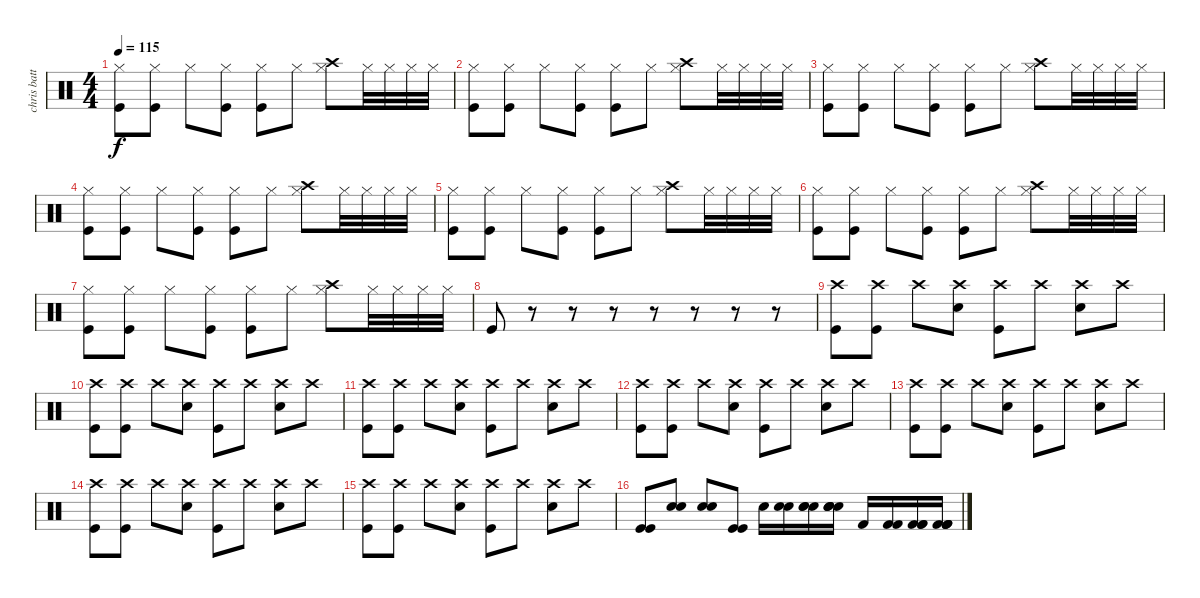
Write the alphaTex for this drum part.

\track ("chris batterie" "chris batt") {instrument percussion}
\staff {score}
\articulation defaults
\ts (4 4)
\tempo 115
\clef neutral
\ks c
("Hi-Hat (closed)" "Kick (hit)").8{dy f} ("Hi-Hat (closed)" "Kick (hit)").8 "Hi-Hat (closed)".8 ("Hi-Hat (closed)" "Kick (hit)").8 ("Hi-Hat (closed)" "Kick (hit)").8 "Hi-Hat (closed)".8 ("Hi-Hat (closed)" "Crash high (hit)").8 "Hi-Hat (closed)".32 "Hi-Hat (closed)".32 "Hi-Hat (closed)".32 "Hi-Hat (closed)".32 |
("Hi-Hat (closed)" "Kick (hit)").8 ("Hi-Hat (closed)" "Kick (hit)").8 "Hi-Hat (closed)".8 ("Hi-Hat (closed)" "Kick (hit)").8 ("Hi-Hat (closed)" "Kick (hit)").8 "Hi-Hat (closed)".8 ("Hi-Hat (closed)" "Crash high (hit)").8 "Hi-Hat (closed)".32 "Hi-Hat (closed)".32 "Hi-Hat (closed)".32 "Hi-Hat (closed)".32 |
("Hi-Hat (closed)" "Kick (hit)").8 ("Hi-Hat (closed)" "Kick (hit)").8 "Hi-Hat (closed)".8 ("Hi-Hat (closed)" "Kick (hit)").8 ("Hi-Hat (closed)" "Kick (hit)").8 "Hi-Hat (closed)".8 ("Hi-Hat (closed)" "Crash high (hit)").8 "Hi-Hat (closed)".32 "Hi-Hat (closed)".32 "Hi-Hat (closed)".32 "Hi-Hat (closed)".32 |
("Hi-Hat (closed)" "Kick (hit)").8 ("Hi-Hat (closed)" "Kick (hit)").8 "Hi-Hat (closed)".8 ("Hi-Hat (closed)" "Kick (hit)").8 ("Hi-Hat (closed)" "Kick (hit)").8 "Hi-Hat (closed)".8 ("Hi-Hat (closed)" "Crash high (hit)").8 "Hi-Hat (closed)".32 "Hi-Hat (closed)".32 "Hi-Hat (closed)".32 "Hi-Hat (closed)".32 |
("Hi-Hat (closed)" "Kick (hit)").8 ("Hi-Hat (closed)" "Kick (hit)").8 "Hi-Hat (closed)".8 ("Hi-Hat (closed)" "Kick (hit)").8 ("Hi-Hat (closed)" "Kick (hit)").8 "Hi-Hat (closed)".8 ("Hi-Hat (closed)" "Crash high (hit)").8 "Hi-Hat (closed)".32 "Hi-Hat (closed)".32 "Hi-Hat (closed)".32 "Hi-Hat (closed)".32 |
("Hi-Hat (closed)" "Kick (hit)").8 ("Hi-Hat (closed)" "Kick (hit)").8 "Hi-Hat (closed)".8 ("Hi-Hat (closed)" "Kick (hit)").8 ("Hi-Hat (closed)" "Kick (hit)").8 "Hi-Hat (closed)".8 ("Hi-Hat (closed)" "Crash high (hit)").8 "Hi-Hat (closed)".32 "Hi-Hat (closed)".32 "Hi-Hat (closed)".32 "Hi-Hat (closed)".32 |
("Hi-Hat (closed)" "Kick (hit)").8 ("Hi-Hat (closed)" "Kick (hit)").8 "Hi-Hat (closed)".8 ("Hi-Hat (closed)" "Kick (hit)").8 ("Hi-Hat (closed)" "Kick (hit)").8 "Hi-Hat (closed)".8 ("Hi-Hat (closed)" "Crash high (hit)").8 "Hi-Hat (closed)".32 "Hi-Hat (closed)".32 "Hi-Hat (closed)".32 "Hi-Hat (closed)".32 |
"Kick (hit)".8 r.8 r.8 r.8 r.8 r.8 r.8 r.8 |
("Crash high (hit)" "Kick (hit)").8 ("Crash high (hit)" "Kick (hit)").8 "Crash high (hit)".8 ("Crash high (hit)" "Snare (hit) 2").8 ("Crash high (hit)" "Kick (hit)").8 "Crash high (hit)".8 ("Crash high (hit)" "Snare (hit) 2").8 "Crash high (hit)".8 |
("Crash high (hit)" "Kick (hit)").8 ("Crash high (hit)" "Kick (hit)").8 "Crash high (hit)".8 ("Crash high (hit)" "Snare (hit) 2").8 ("Crash high (hit)" "Kick (hit)").8 "Crash high (hit)".8 ("Crash high (hit)" "Snare (hit) 2").8 "Crash high (hit)".8 |
("Crash high (hit)" "Kick (hit)").8 ("Crash high (hit)" "Kick (hit)").8 "Crash high (hit)".8 ("Crash high (hit)" "Snare (hit) 2").8 ("Crash high (hit)" "Kick (hit)").8 "Crash high (hit)".8 ("Crash high (hit)" "Snare (hit) 2").8 "Crash high (hit)".8 |
("Crash high (hit)" "Kick (hit)").8 ("Crash high (hit)" "Kick (hit)").8 "Crash high (hit)".8 ("Crash high (hit)" "Snare (hit) 2").8 ("Crash high (hit)" "Kick (hit)").8 "Crash high (hit)".8 ("Crash high (hit)" "Snare (hit) 2").8 "Crash high (hit)".8 |
("Crash high (hit)" "Kick (hit)").8 ("Crash high (hit)" "Kick (hit)").8 "Crash high (hit)".8 ("Crash high (hit)" "Snare (hit) 2").8 ("Crash high (hit)" "Kick (hit)").8 "Crash high (hit)".8 ("Crash high (hit)" "Snare (hit) 2").8 "Crash high (hit)".8 |
("Crash high (hit)" "Kick (hit)").8 ("Crash high (hit)" "Kick (hit)").8 "Crash high (hit)".8 ("Crash high (hit)" "Snare (hit) 2").8 ("Crash high (hit)" "Kick (hit)").8 "Crash high (hit)".8 ("Crash high (hit)" "Snare (hit) 2").8 "Crash high (hit)".8 |
("Crash high (hit)" "Kick (hit)").8 ("Crash high (hit)" "Kick (hit)").8 "Crash high (hit)".8 ("Crash high (hit)" "Snare (hit) 2").8 ("Crash high (hit)" "Kick (hit)").8 "Crash high (hit)".8 ("Crash high (hit)" "Snare (hit) 2").8 "Crash high (hit)".8 |
("Kick (hit)" "Kick (hit)").8 ("Snare (hit) 2" "Snare (hit) 2").8 ("Snare (hit) 2" "Snare (hit) 2").8 ("Kick (hit)" "Kick (hit)").8 "Snare (hit) 2".16 ("Snare (hit) 2" "Snare (hit) 2").16 ("Snare (hit) 2" "Snare (hit) 2" "Snare (hit) 2").16 ("Snare (hit) 2" "Snare (hit) 2" "Snare (hit) 2" "Snare (hit) 2").16 "Kick (hit) 2".16 ("Kick (hit) 2" "Kick (hit) 2").16 ("Kick (hit) 2" "Kick (hit) 2" "Kick (hit) 2").16 ("Kick (hit) 2" "Kick (hit) 2" "Kick (hit) 2" "Kick (hit) 2").16
